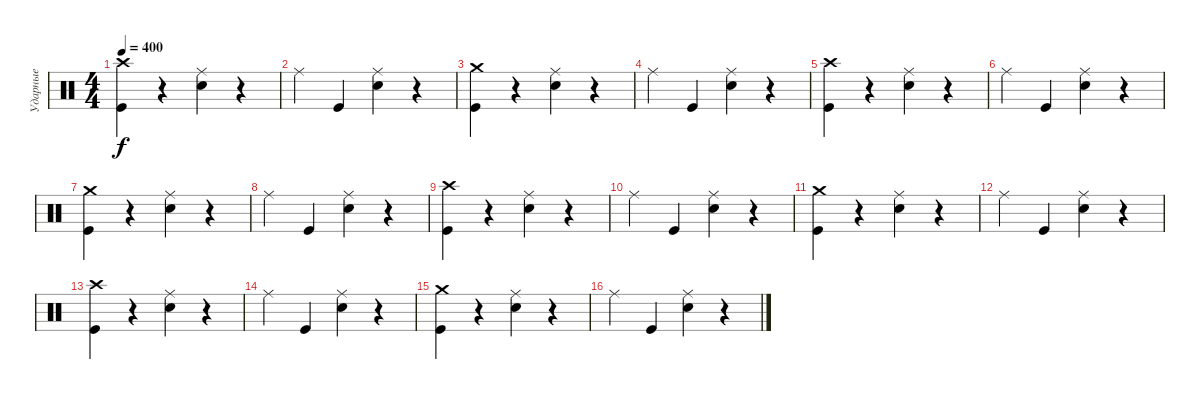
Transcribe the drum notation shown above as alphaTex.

\track ("Ударные" "Ударные") {instrument percussion}
\staff {score}
\articulation defaults
\ts (4 4)
\tempo 400
\clef neutral
\ks c
("Kick (hit)" "Crash high (hit)").4{dy f} r.4 ("Snare (hit) 2" "Ride (middle)").4 r.4 |
"Ride (middle)".4 "Kick (hit)".4 ("Snare (hit) 2" "Ride (middle)").4 r.4 |
("Kick (hit)" "Crash medium (hit)").4 r.4 ("Snare (hit) 2" "Ride (middle)").4 r.4 |
"Ride (middle)".4 "Kick (hit)".4 ("Snare (hit) 2" "Ride (middle)").4 r.4 |
("Kick (hit)" "Crash high (hit)").4 r.4 ("Snare (hit) 2" "Ride (middle)").4 r.4 |
"Ride (middle)".4 "Kick (hit)".4 ("Snare (hit) 2" "Ride (middle)").4 r.4 |
("Kick (hit)" "Crash medium (hit)").4 r.4 ("Snare (hit) 2" "Ride (middle)").4 r.4 |
"Ride (middle)".4 "Kick (hit)".4 ("Snare (hit) 2" "Ride (middle)").4 r.4 |
("Kick (hit)" "Crash high (hit)").4 r.4 ("Snare (hit) 2" "Ride (middle)").4 r.4 |
"Ride (middle)".4 "Kick (hit)".4 ("Snare (hit) 2" "Ride (middle)").4 r.4 |
("Kick (hit)" "Crash medium (hit)").4 r.4 ("Snare (hit) 2" "Ride (middle)").4 r.4 |
"Ride (middle)".4 "Kick (hit)".4 ("Snare (hit) 2" "Ride (middle)").4 r.4 |
("Kick (hit)" "Crash high (hit)").4 r.4 ("Snare (hit) 2" "Ride (middle)").4 r.4 |
"Ride (middle)".4 "Kick (hit)".4 ("Snare (hit) 2" "Ride (middle)").4 r.4 |
("Kick (hit)" "Crash medium (hit)").4 r.4 ("Snare (hit) 2" "Ride (middle)").4 r.4 |
"Ride (middle)".4 "Kick (hit)".4 ("Snare (hit) 2" "Ride (middle)").4 r.4
